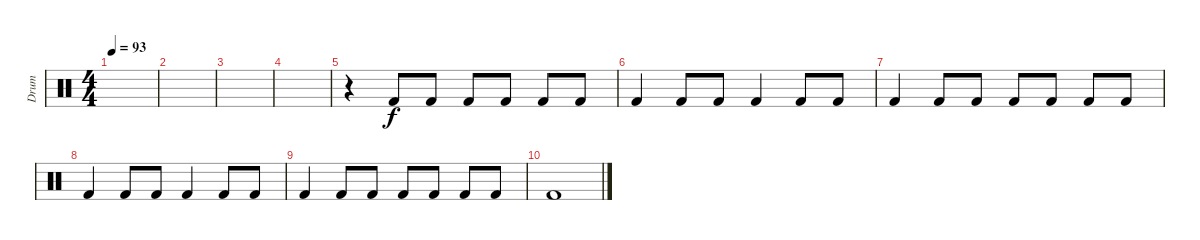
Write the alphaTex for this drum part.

\track ("Drum" "Drum") {instrument percussion}
\staff {score}
\articulation defaults
\ts (4 4)
\tempo 93
\clef neutral
\ks c
|
|
|
|
r.4 "Kick (hit) 2".8 "Kick (hit) 2".8 "Kick (hit) 2".8 "Kick (hit) 2".8 "Kick (hit) 2".8 "Kick (hit) 2".8 |
"Kick (hit) 2".4{volume 0} "Kick (hit) 2".8 "Kick (hit) 2".8 "Kick (hit) 2".4 "Kick (hit) 2".8 "Kick (hit) 2".8 |
"Kick (hit) 2".4 "Kick (hit) 2".8 "Kick (hit) 2".8 "Kick (hit) 2".8 "Kick (hit) 2".8 "Kick (hit) 2".8 "Kick (hit) 2".8 |
"Kick (hit) 2".4 "Kick (hit) 2".8 "Kick (hit) 2".8 "Kick (hit) 2".4 "Kick (hit) 2".8 "Kick (hit) 2".8 |
"Kick (hit) 2".4 "Kick (hit) 2".8 "Kick (hit) 2".8 "Kick (hit) 2".8 "Kick (hit) 2".8 "Kick (hit) 2".8 "Kick (hit) 2".8 |
"Kick (hit) 2".1
